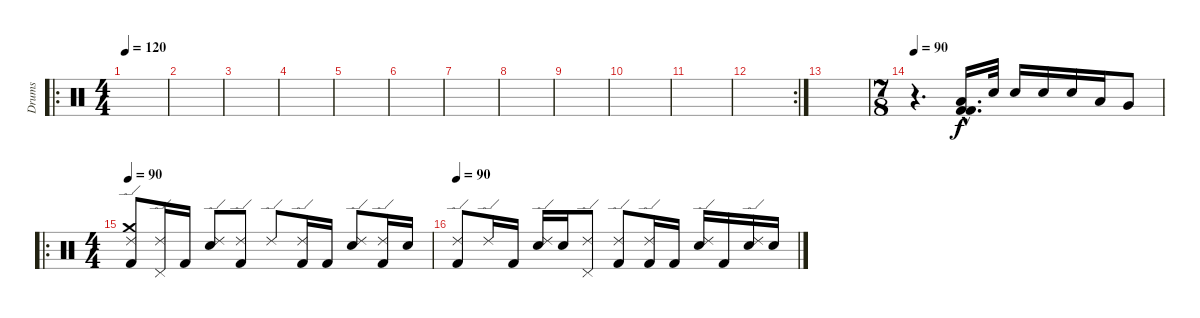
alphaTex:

\track ("Drums" "Drums") {instrument percussion}
\staff {score}
\articulation defaults
\ro
\ts (4 4)
\tempo 120
\clef neutral
\ks c
|
|
|
|
|
|
|
|
|
|
|
\rc 2
|
|
\ts (7 8)
\tempo 90
r.4{d volume 12} ("Low Tom (hit)"{hac} "Kick (hit) 2"{hac} "Kick (hit) 2"{hac}).16{d} "Electric Snare (hit)".32 "Electric Snare (hit)".16 "Electric Snare (hit)".16 "Electric Snare (hit)".16 "Low Tom (hit)".16 "Very Low Tom (hit)".8 |
\ro
\ts (4 4)
\tempo 90
("Kick (hit) 2" "Crash medium (hit)" "Ride (edge) 2").8 ("Pedal Hi-Hat (hit)" "Ride (edge) 2").16 "Kick (hit) 2".16 ("Electric Snare (hit)" "Ride (edge) 2").8 ("Kick (hit) 2" "Ride (edge) 2").8 "Ride (edge) 2".8 ("Kick (hit) 2" "Ride (edge) 2").16 "Kick (hit) 2".16 ("Electric Snare (hit)" "Ride (edge) 2").8 ("Kick (hit) 2" "Ride (edge) 2").16 "Electric Snare (hit)".16 |
\tempo 90
("Kick (hit) 2" "Ride (edge) 2").8 "Ride (edge) 2".16 "Kick (hit) 2".16 ("Electric Snare (hit)" "Ride (edge) 2").16 "Electric Snare (hit)".16 ("Ride (edge) 2" "Pedal Hi-Hat (hit)").8 ("Kick (hit) 2" "Ride (edge) 2").8 ("Kick (hit) 2" "Ride (edge) 2").16 "Kick (hit) 2".16 ("Electric Snare (hit)" "Ride (edge) 2").16 "Kick (hit) 2".16 ("Electric Snare (hit)" "Ride (edge) 2").16 "Electric Snare (hit)".16
